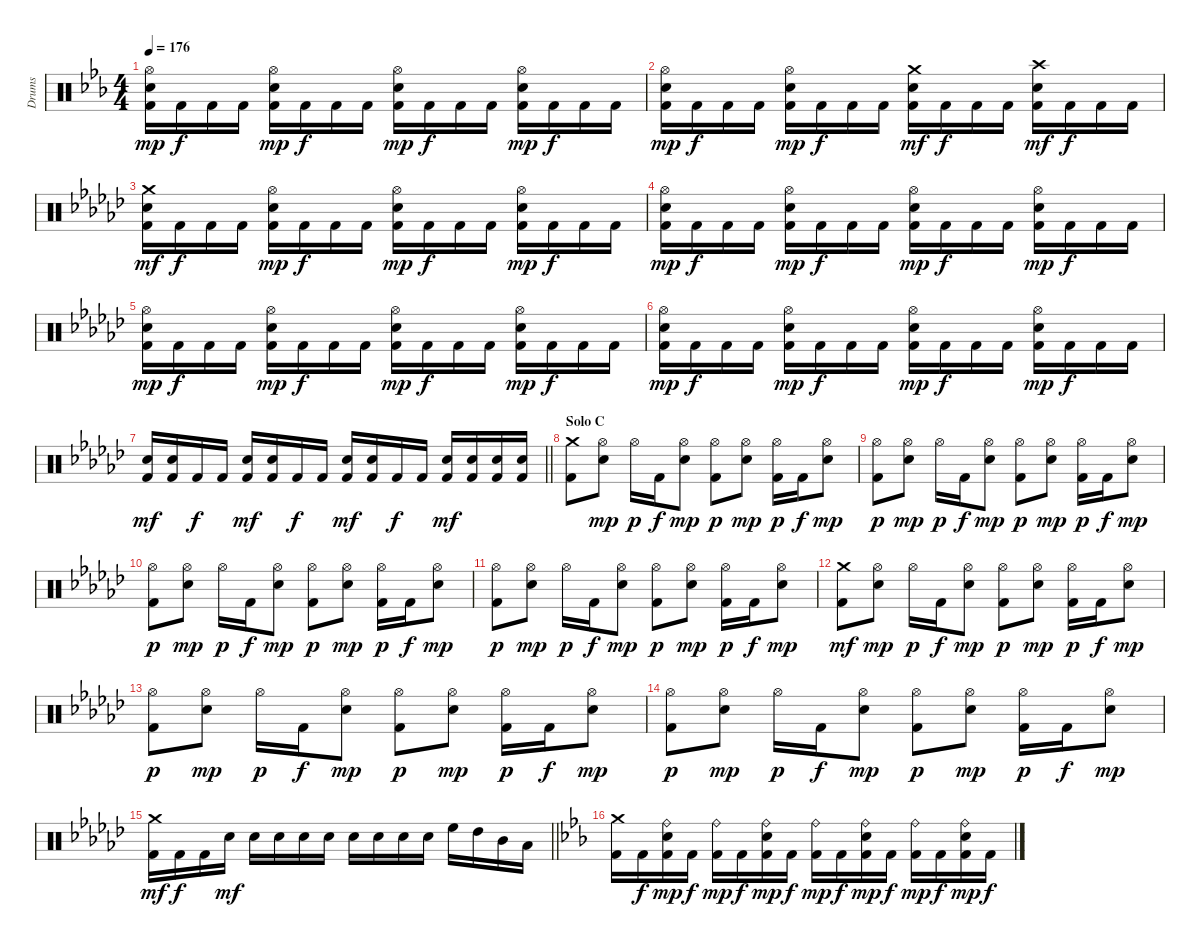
\track ("Drums" "Drums") {instrument percussion}
\staff {score}
\articulation defaults
\ts (4 4)
\tempo 176
\clef neutral
\ks cminor
("Hi-Hat (open)" "Electric Snare (hit)" "Kick (hit) 2").16{dy mp} "Kick (hit) 2".16{dy f} "Kick (hit) 2".16 "Kick (hit) 2".16 ("Hi-Hat (open)" "Electric Snare (hit)" "Kick (hit) 2").16{dy mp} "Kick (hit) 2".16{dy f} "Kick (hit) 2".16 "Kick (hit) 2".16 ("Hi-Hat (open)" "Electric Snare (hit)" "Kick (hit) 2").16{dy mp} "Kick (hit) 2".16{dy f} "Kick (hit) 2".16 "Kick (hit) 2".16 ("Hi-Hat (open)" "Electric Snare (hit)" "Kick (hit) 2").16{dy mp} "Kick (hit) 2".16{dy f} "Kick (hit) 2".16 "Kick (hit) 2".16 |
("Hi-Hat (open)" "Electric Snare (hit)" "Kick (hit) 2").16{dy mp} "Kick (hit) 2".16{dy f} "Kick (hit) 2".16 "Kick (hit) 2".16 ("Hi-Hat (open)" "Electric Snare (hit)" "Kick (hit) 2").16{dy mp} "Kick (hit) 2".16{dy f} "Kick (hit) 2".16 "Kick (hit) 2".16 ("Crash medium (hit)" "Electric Snare (hit)" "Kick (hit) 2").16{dy mf} "Kick (hit) 2".16{dy f} "Kick (hit) 2".16 "Kick (hit) 2".16 ("Crash high (hit)" "Electric Snare (hit)" "Kick (hit) 2").16{dy mf} "Kick (hit) 2".16{dy f} "Kick (hit) 2".16 "Kick (hit) 2".16 |
\ks ebminor
("Crash medium (hit)" "Electric Snare (hit)" "Kick (hit) 2").16{dy mf} "Kick (hit) 2".16{dy f} "Kick (hit) 2".16 "Kick (hit) 2".16 ("Hi-Hat (open)" "Electric Snare (hit)" "Kick (hit) 2").16{dy mp} "Kick (hit) 2".16{dy f} "Kick (hit) 2".16 "Kick (hit) 2".16 ("Hi-Hat (open)" "Electric Snare (hit)" "Kick (hit) 2").16{dy mp} "Kick (hit) 2".16{dy f} "Kick (hit) 2".16 "Kick (hit) 2".16 ("Hi-Hat (open)" "Electric Snare (hit)" "Kick (hit) 2").16{dy mp} "Kick (hit) 2".16{dy f} "Kick (hit) 2".16 "Kick (hit) 2".16 |
("Hi-Hat (open)" "Electric Snare (hit)" "Kick (hit) 2").16{dy mp} "Kick (hit) 2".16{dy f} "Kick (hit) 2".16 "Kick (hit) 2".16 ("Hi-Hat (open)" "Electric Snare (hit)" "Kick (hit) 2").16{dy mp} "Kick (hit) 2".16{dy f} "Kick (hit) 2".16 "Kick (hit) 2".16 ("Hi-Hat (open)" "Electric Snare (hit)" "Kick (hit) 2").16{dy mp} "Kick (hit) 2".16{dy f} "Kick (hit) 2".16 "Kick (hit) 2".16 ("Hi-Hat (open)" "Electric Snare (hit)" "Kick (hit) 2").16{dy mp} "Kick (hit) 2".16{dy f} "Kick (hit) 2".16 "Kick (hit) 2".16 |
("Hi-Hat (open)" "Electric Snare (hit)" "Kick (hit) 2").16{dy mp} "Kick (hit) 2".16{dy f} "Kick (hit) 2".16 "Kick (hit) 2".16 ("Hi-Hat (open)" "Electric Snare (hit)" "Kick (hit) 2").16{dy mp} "Kick (hit) 2".16{dy f} "Kick (hit) 2".16 "Kick (hit) 2".16 ("Hi-Hat (open)" "Electric Snare (hit)" "Kick (hit) 2").16{dy mp} "Kick (hit) 2".16{dy f} "Kick (hit) 2".16 "Kick (hit) 2".16 ("Hi-Hat (open)" "Electric Snare (hit)" "Kick (hit) 2").16{dy mp} "Kick (hit) 2".16{dy f} "Kick (hit) 2".16 "Kick (hit) 2".16 |
("Hi-Hat (open)" "Electric Snare (hit)" "Kick (hit) 2").16{dy mp} "Kick (hit) 2".16{dy f} "Kick (hit) 2".16 "Kick (hit) 2".16 ("Hi-Hat (open)" "Electric Snare (hit)" "Kick (hit) 2").16{dy mp} "Kick (hit) 2".16{dy f} "Kick (hit) 2".16 "Kick (hit) 2".16 ("Hi-Hat (open)" "Electric Snare (hit)" "Kick (hit) 2").16{dy mp} "Kick (hit) 2".16{dy f} "Kick (hit) 2".16 "Kick (hit) 2".16 ("Hi-Hat (open)" "Electric Snare (hit)" "Kick (hit) 2").16{dy mp} "Kick (hit) 2".16{dy f} "Kick (hit) 2".16 "Kick (hit) 2".16 |
\barLineRight lightlight
("Electric Snare (hit)" "Kick (hit) 2").16{dy mf} ("Electric Snare (hit)" "Kick (hit) 2").16 "Kick (hit) 2".16{dy f} "Kick (hit) 2".16 ("Electric Snare (hit)" "Kick (hit) 2").16{dy mf} ("Electric Snare (hit)" "Kick (hit) 2").16 "Kick (hit) 2".16{dy f} "Kick (hit) 2".16 ("Electric Snare (hit)" "Kick (hit) 2").16{dy mf} ("Electric Snare (hit)" "Kick (hit) 2").16 "Kick (hit) 2".16{dy f} "Kick (hit) 2".16 ("Electric Snare (hit)" "Kick (hit) 2").16{dy mf} ("Electric Snare (hit)" "Kick (hit) 2").16 ("Electric Snare (hit)" "Kick (hit) 2").16 ("Electric Snare (hit)" "Kick (hit) 2").16 |
\section ("" "Solo C")
("Crash medium (hit)" "Kick (hit) 2").8 ("Hi-Hat (open)" "Electric Snare (hit)").8{dy mp} "Hi-Hat (open)".16{dy p} "Kick (hit) 2".16{dy f} ("Hi-Hat (open)" "Electric Snare (hit)").8{dy mp} ("Hi-Hat (open)" "Kick (hit) 2").8{dy p} ("Hi-Hat (open)" "Electric Snare (hit)").8{dy mp} ("Hi-Hat (open)" "Kick (hit) 2").16{dy p} "Kick (hit) 2".16{dy f} ("Hi-Hat (open)" "Electric Snare (hit)").8{dy mp} |
("Hi-Hat (open)" "Kick (hit) 2").8{dy p} ("Hi-Hat (open)" "Electric Snare (hit)").8{dy mp} "Hi-Hat (open)".16{dy p} "Kick (hit) 2".16{dy f} ("Hi-Hat (open)" "Electric Snare (hit)").8{dy mp} ("Hi-Hat (open)" "Kick (hit) 2").8{dy p} ("Hi-Hat (open)" "Electric Snare (hit)").8{dy mp} ("Hi-Hat (open)" "Kick (hit) 2").16{dy p} "Kick (hit) 2".16{dy f} ("Hi-Hat (open)" "Electric Snare (hit)").8{dy mp} |
("Hi-Hat (open)" "Kick (hit) 2").8{dy p} ("Hi-Hat (open)" "Electric Snare (hit)").8{dy mp} "Hi-Hat (open)".16{dy p} "Kick (hit) 2".16{dy f} ("Hi-Hat (open)" "Electric Snare (hit)").8{dy mp} ("Hi-Hat (open)" "Kick (hit) 2").8{dy p} ("Hi-Hat (open)" "Electric Snare (hit)").8{dy mp} ("Hi-Hat (open)" "Kick (hit) 2").16{dy p} "Kick (hit) 2".16{dy f} ("Hi-Hat (open)" "Electric Snare (hit)").8{dy mp} |
("Hi-Hat (open)" "Kick (hit) 2").8{dy p} ("Hi-Hat (open)" "Electric Snare (hit)").8{dy mp} "Hi-Hat (open)".16{dy p} "Kick (hit) 2".16{dy f} ("Hi-Hat (open)" "Electric Snare (hit)").8{dy mp} ("Hi-Hat (open)" "Kick (hit) 2").8{dy p} ("Hi-Hat (open)" "Electric Snare (hit)").8{dy mp} ("Hi-Hat (open)" "Kick (hit) 2").16{dy p} "Kick (hit) 2".16{dy f} ("Hi-Hat (open)" "Electric Snare (hit)").8{dy mp} |
("Crash medium (hit)" "Kick (hit) 2").8{dy mf} ("Hi-Hat (open)" "Electric Snare (hit)").8{dy mp} "Hi-Hat (open)".16{dy p} "Kick (hit) 2".16{dy f} ("Hi-Hat (open)" "Electric Snare (hit)").8{dy mp} ("Hi-Hat (open)" "Kick (hit) 2").8{dy p} ("Hi-Hat (open)" "Electric Snare (hit)").8{dy mp} ("Hi-Hat (open)" "Kick (hit) 2").16{dy p} "Kick (hit) 2".16{dy f} ("Hi-Hat (open)" "Electric Snare (hit)").8{dy mp} |
("Hi-Hat (open)" "Kick (hit) 2").8{dy p} ("Hi-Hat (open)" "Electric Snare (hit)").8{dy mp} "Hi-Hat (open)".16{dy p} "Kick (hit) 2".16{dy f} ("Hi-Hat (open)" "Electric Snare (hit)").8{dy mp} ("Hi-Hat (open)" "Kick (hit) 2").8{dy p} ("Hi-Hat (open)" "Electric Snare (hit)").8{dy mp} ("Hi-Hat (open)" "Kick (hit) 2").16{dy p} "Kick (hit) 2".16{dy f} ("Hi-Hat (open)" "Electric Snare (hit)").8{dy mp} |
("Hi-Hat (open)" "Kick (hit) 2").8{dy p} ("Hi-Hat (open)" "Electric Snare (hit)").8{dy mp} "Hi-Hat (open)".16{dy p} "Kick (hit) 2".16{dy f} ("Hi-Hat (open)" "Electric Snare (hit)").8{dy mp} ("Hi-Hat (open)" "Kick (hit) 2").8{dy p} ("Hi-Hat (open)" "Electric Snare (hit)").8{dy mp} ("Hi-Hat (open)" "Kick (hit) 2").16{dy p} "Kick (hit) 2".16{dy f} ("Hi-Hat (open)" "Electric Snare (hit)").8{dy mp} |
\barLineRight lightlight
("Crash medium (hit)" "Kick (hit) 2").16{dy mf} "Kick (hit) 2".16{dy f} "Kick (hit) 2".16 "Electric Snare (hit)".16{dy mf} "Electric Snare (hit)".16 "Electric Snare (hit)".16 "Electric Snare (hit)".16 "Electric Snare (hit)".16 "Electric Snare (hit)".16 "Electric Snare (hit)".16 "Electric Snare (hit)".16 "Electric Snare (hit)".16 "High Floor Tom (hit)".16 "High Tom (hit)".16 "Mid Tom (hit)".16 "Low Tom (hit)".16 |
\section ("" "")
\ks cminor
("Crash medium (hit)" "Kick (hit) 2").16 "Kick (hit) 2".16{dy f} ("Ride (bell)" "Electric Snare (hit)" "Kick (hit) 2").16{dy mp} "Kick (hit) 2".16{dy f} ("Ride (bell)" "Kick (hit) 2").16{dy mp} "Kick (hit) 2".16{dy f} ("Ride (bell)" "Electric Snare (hit)" "Kick (hit) 2").16{dy mp} "Kick (hit) 2".16{dy f} ("Ride (bell)" "Kick (hit) 2").16{dy mp} "Kick (hit) 2".16{dy f} ("Ride (bell)" "Electric Snare (hit)" "Kick (hit) 2").16{dy mp} "Kick (hit) 2".16{dy f} ("Ride (bell)" "Kick (hit) 2").16{dy mp} "Kick (hit) 2".16{dy f} ("Ride (bell)" "Electric Snare (hit)" "Kick (hit) 2").16{dy mp} "Kick (hit) 2".16{dy f}
